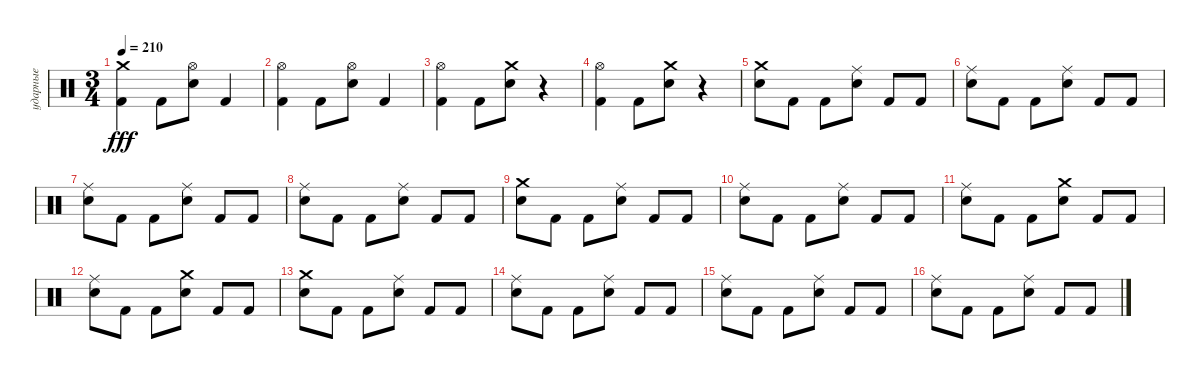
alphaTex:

\track ("ударные" "ударные") {instrument percussion}
\staff {score}
\articulation defaults
\ts (3 4)
\tempo 210
\clef neutral
\ks c
("Crash medium (hit)" "Kick (hit) 2").4{dy fff} "Kick (hit) 2".8 ("Hi-Hat (open)" "Snare (hit) 2").8 "Kick (hit) 2".4 |
("Hi-Hat (open)" "Kick (hit) 2").4 "Kick (hit) 2".8 ("Hi-Hat (open)" "Snare (hit) 2").8 "Kick (hit) 2".4 |
("Hi-Hat (open)" "Kick (hit) 2").4 "Kick (hit) 2".8 ("Crash medium (hit)" "Snare (hit) 2").8 r.4 |
("Hi-Hat (open)" "Kick (hit) 2").4 "Kick (hit) 2".8 ("Crash medium (hit)" "Snare (hit) 2").8 r.4 |
("Crash medium (hit)" "Snare (hit) 2").8 "Kick (hit) 2".8 "Kick (hit) 2".8 ("Ride (middle)" "Snare (hit) 2").8 "Kick (hit) 2".8 "Kick (hit) 2".8 |
("Ride (middle)" "Snare (hit) 2").8 "Kick (hit) 2".8 "Kick (hit) 2".8 ("Ride (middle)" "Snare (hit) 2").8 "Kick (hit) 2".8 "Kick (hit) 2".8 |
("Ride (middle)" "Snare (hit) 2").8 "Kick (hit) 2".8 "Kick (hit) 2".8 ("Ride (middle)" "Snare (hit) 2").8 "Kick (hit) 2".8 "Kick (hit) 2".8 |
("Ride (middle)" "Snare (hit) 2").8 "Kick (hit) 2".8 "Kick (hit) 2".8 ("Ride (middle)" "Snare (hit) 2").8 "Kick (hit) 2".8 "Kick (hit) 2".8 |
("Crash medium (hit)" "Snare (hit) 2").8 "Kick (hit) 2".8 "Kick (hit) 2".8 ("Ride (middle)" "Snare (hit) 2").8 "Kick (hit) 2".8 "Kick (hit) 2".8 |
("Ride (middle)" "Snare (hit) 2").8 "Kick (hit) 2".8 "Kick (hit) 2".8 ("Ride (middle)" "Snare (hit) 2").8 "Kick (hit) 2".8 "Kick (hit) 2".8 |
("Ride (middle)" "Snare (hit) 2").8 "Kick (hit) 2".8 "Kick (hit) 2".8 ("Crash medium (hit)" "Snare (hit) 2").8 "Kick (hit) 2".8 "Kick (hit) 2".8 |
("Ride (middle)" "Snare (hit) 2").8 "Kick (hit) 2".8 "Kick (hit) 2".8 ("Crash medium (hit)" "Snare (hit) 2").8 "Kick (hit) 2".8 "Kick (hit) 2".8 |
("Crash medium (hit)" "Snare (hit) 2").8 "Kick (hit) 2".8 "Kick (hit) 2".8 ("Ride (middle)" "Snare (hit) 2").8 "Kick (hit) 2".8 "Kick (hit) 2".8 |
("Ride (middle)" "Snare (hit) 2").8 "Kick (hit) 2".8 "Kick (hit) 2".8 ("Ride (middle)" "Snare (hit) 2").8 "Kick (hit) 2".8 "Kick (hit) 2".8 |
("Ride (middle)" "Snare (hit) 2").8 "Kick (hit) 2".8 "Kick (hit) 2".8 ("Ride (middle)" "Snare (hit) 2").8 "Kick (hit) 2".8 "Kick (hit) 2".8 |
("Ride (middle)" "Snare (hit) 2").8 "Kick (hit) 2".8 "Kick (hit) 2".8 ("Ride (middle)" "Snare (hit) 2").8 "Kick (hit) 2".8 "Kick (hit) 2".8
